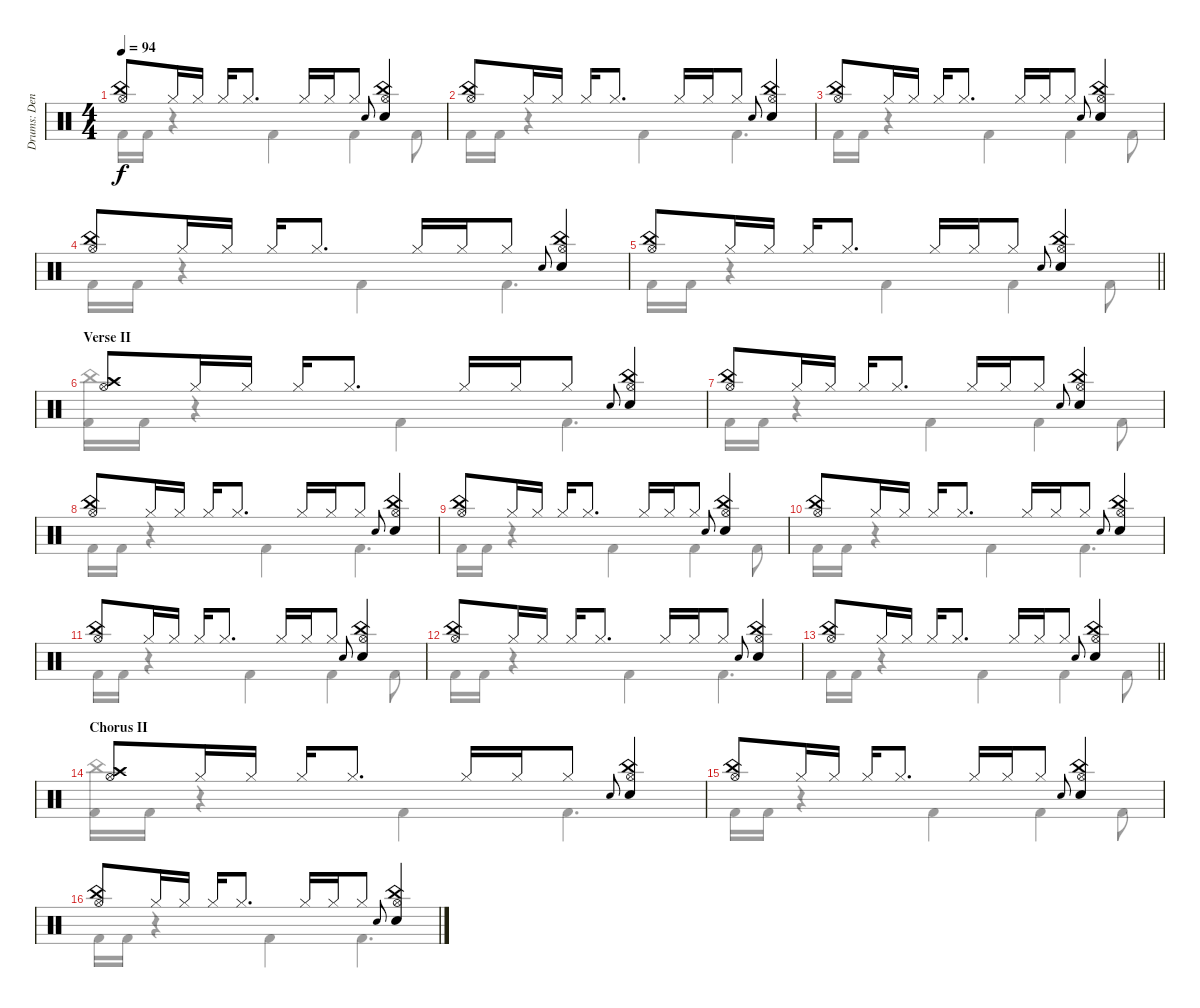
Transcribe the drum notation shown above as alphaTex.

\track ("Drums: Denny" "Drums: Den") {instrument percussion}
\staff {score}
\articulation defaults
\voice
\ts (4 4)
\tempo 94
\clef neutral
\ks c
("China (hit)" "Hi-Hat (open)").8{dy f} "Hi-Hat (closed)".16 "Hi-Hat (closed)".16 "Hi-Hat (closed)".16 "Hi-Hat (closed)".8{d} "Hi-Hat (closed)".16 "Hi-Hat (closed)".16 "Hi-Hat (closed)".8 "Electric Snare (hit)".8{gr onbeat} ("China (hit)" "Hi-Hat (open)" "Snare (hit) 2").4 |
("China (hit)" "Hi-Hat (open)").8 "Hi-Hat (closed)".16 "Hi-Hat (closed)".16 "Hi-Hat (closed)".16 "Hi-Hat (closed)".8{d} "Hi-Hat (closed)".16 "Hi-Hat (closed)".16 "Hi-Hat (closed)".8 "Electric Snare (hit)".8{gr onbeat} ("China (hit)" "Hi-Hat (open)" "Snare (hit) 2").4 |
("China (hit)" "Hi-Hat (open)").8 "Hi-Hat (closed)".16 "Hi-Hat (closed)".16 "Hi-Hat (closed)".16 "Hi-Hat (closed)".8{d} "Hi-Hat (closed)".16 "Hi-Hat (closed)".16 "Hi-Hat (closed)".8 "Electric Snare (hit)".8{gr onbeat} ("China (hit)" "Hi-Hat (open)" "Snare (hit) 2").4 |
("China (hit)" "Hi-Hat (open)").8 "Hi-Hat (closed)".16 "Hi-Hat (closed)".16 "Hi-Hat (closed)".16 "Hi-Hat (closed)".8{d} "Hi-Hat (closed)".16 "Hi-Hat (closed)".16 "Hi-Hat (closed)".8 "Electric Snare (hit)".8{gr onbeat} ("China (hit)" "Hi-Hat (open)" "Snare (hit) 2").4 |
\barLineRight lightlight
("China (hit)" "Hi-Hat (open)").8 "Hi-Hat (closed)".16 "Hi-Hat (closed)".16 "Hi-Hat (closed)".16 "Hi-Hat (closed)".8{d} "Hi-Hat (closed)".16 "Hi-Hat (closed)".16 "Hi-Hat (closed)".8 "Electric Snare (hit)".8{gr onbeat} ("China (hit)" "Hi-Hat (open)" "Snare (hit) 2").4 |
\section ("" "Verse II")
("Crash high (hit)" "Hi-Hat (open)").8 "Hi-Hat (closed)".16 "Hi-Hat (closed)".16 "Hi-Hat (closed)".16 "Hi-Hat (closed)".8{d} "Hi-Hat (closed)".16 "Hi-Hat (closed)".16 "Hi-Hat (closed)".8 "Electric Snare (hit)".8{gr onbeat} ("China (hit)" "Hi-Hat (open)" "Snare (hit) 2").4 |
("China (hit)" "Hi-Hat (open)").8 "Hi-Hat (closed)".16 "Hi-Hat (closed)".16 "Hi-Hat (closed)".16 "Hi-Hat (closed)".8{d} "Hi-Hat (closed)".16 "Hi-Hat (closed)".16 "Hi-Hat (closed)".8 "Electric Snare (hit)".8{gr onbeat} ("China (hit)" "Hi-Hat (open)" "Snare (hit) 2").4 |
("China (hit)" "Hi-Hat (open)").8 "Hi-Hat (closed)".16 "Hi-Hat (closed)".16 "Hi-Hat (closed)".16 "Hi-Hat (closed)".8{d} "Hi-Hat (closed)".16 "Hi-Hat (closed)".16 "Hi-Hat (closed)".8 "Electric Snare (hit)".8{gr onbeat} ("China (hit)" "Hi-Hat (open)" "Snare (hit) 2").4 |
("China (hit)" "Hi-Hat (open)").8 "Hi-Hat (closed)".16 "Hi-Hat (closed)".16 "Hi-Hat (closed)".16 "Hi-Hat (closed)".8{d} "Hi-Hat (closed)".16 "Hi-Hat (closed)".16 "Hi-Hat (closed)".8 "Electric Snare (hit)".8{gr onbeat} ("China (hit)" "Hi-Hat (open)" "Snare (hit) 2").4 |
("China (hit)" "Hi-Hat (open)").8 "Hi-Hat (closed)".16 "Hi-Hat (closed)".16 "Hi-Hat (closed)".16 "Hi-Hat (closed)".8{d} "Hi-Hat (closed)".16 "Hi-Hat (closed)".16 "Hi-Hat (closed)".8 "Electric Snare (hit)".8{gr onbeat} ("China (hit)" "Hi-Hat (open)" "Snare (hit) 2").4 |
("China (hit)" "Hi-Hat (open)").8 "Hi-Hat (closed)".16 "Hi-Hat (closed)".16 "Hi-Hat (closed)".16 "Hi-Hat (closed)".8{d} "Hi-Hat (closed)".16 "Hi-Hat (closed)".16 "Hi-Hat (closed)".8 "Electric Snare (hit)".8{gr onbeat} ("China (hit)" "Hi-Hat (open)" "Snare (hit) 2").4 |
("China (hit)" "Hi-Hat (open)").8 "Hi-Hat (closed)".16 "Hi-Hat (closed)".16 "Hi-Hat (closed)".16 "Hi-Hat (closed)".8{d} "Hi-Hat (closed)".16 "Hi-Hat (closed)".16 "Hi-Hat (closed)".8 "Electric Snare (hit)".8{gr onbeat} ("China (hit)" "Hi-Hat (open)" "Snare (hit) 2").4 |
\barLineRight lightlight
("China (hit)" "Hi-Hat (open)").8 "Hi-Hat (closed)".16 "Hi-Hat (closed)".16 "Hi-Hat (closed)".16 "Hi-Hat (closed)".8{d} "Hi-Hat (closed)".16 "Hi-Hat (closed)".16 "Hi-Hat (closed)".8 "Electric Snare (hit)".8{gr onbeat} ("China (hit)" "Hi-Hat (open)" "Snare (hit) 2").4 |
\section ("" "Chorus II")
("Crash high (hit)" "Hi-Hat (open)").8 "Hi-Hat (closed)".16 "Hi-Hat (closed)".16 "Hi-Hat (closed)".16 "Hi-Hat (closed)".8{d} "Hi-Hat (closed)".16 "Hi-Hat (closed)".16 "Hi-Hat (closed)".8 "Electric Snare (hit)".8{gr onbeat} ("China (hit)" "Hi-Hat (open)" "Snare (hit) 2").4 |
("China (hit)" "Hi-Hat (open)").8 "Hi-Hat (closed)".16 "Hi-Hat (closed)".16 "Hi-Hat (closed)".16 "Hi-Hat (closed)".8{d} "Hi-Hat (closed)".16 "Hi-Hat (closed)".16 "Hi-Hat (closed)".8 "Electric Snare (hit)".8{gr onbeat} ("China (hit)" "Hi-Hat (open)" "Snare (hit) 2").4 |
("China (hit)" "Hi-Hat (open)").8 "Hi-Hat (closed)".16 "Hi-Hat (closed)".16 "Hi-Hat (closed)".16 "Hi-Hat (closed)".8{d} "Hi-Hat (closed)".16 "Hi-Hat (closed)".16 "Hi-Hat (closed)".8 "Electric Snare (hit)".8{gr onbeat} ("China (hit)" "Hi-Hat (open)" "Snare (hit) 2").4
\voice
\clef neutral
\ottava regular
\simile none
\ks c "Kick (hit) 2".16{dy f} "Kick (hit) 2".16
r.4 "Kick (hit) 2".4 "Kick (hit) 2".4 "Kick (hit) 2".8 |
"Kick (hit) 2".16 "Kick (hit) 2".16 r.4 "Kick (hit) 2".4 "Kick (hit) 2".4{d} |
"Kick (hit) 2".16 "Kick (hit) 2".16 r.4 "Kick (hit) 2".4 "Kick (hit) 2".4 "Kick (hit) 2".8 |
"Kick (hit) 2".16 "Kick (hit) 2".16 r.4 "Kick (hit) 2".4 "Kick (hit) 2".4{d} |
\barLineRight lightlight "Kick (hit) 2".16 "Kick (hit) 2".16
r.4 "Kick (hit) 2".4 "Kick (hit) 2".4 "Kick (hit) 2".8 |
("China (hit)" "Kick (hit) 2").16 "Kick (hit) 2".16 r.4 "Kick (hit) 2".4 "Kick (hit) 2".4{d} |
"Kick (hit) 2".16 "Kick (hit) 2".16 r.4 "Kick (hit) 2".4 "Kick (hit) 2".4 "Kick (hit) 2".8 |
"Kick (hit) 2".16 "Kick (hit) 2".16 r.4 "Kick (hit) 2".4 "Kick (hit) 2".4{d} |
"Kick (hit) 2".16 "Kick (hit) 2".16 r.4 "Kick (hit) 2".4 "Kick (hit) 2".4 "Kick (hit) 2".8 |
"Kick (hit) 2".16 "Kick (hit) 2".16 r.4 "Kick (hit) 2".4 "Kick (hit) 2".4{d} |
"Kick (hit) 2".16 "Kick (hit) 2".16 r.4 "Kick (hit) 2".4 "Kick (hit) 2".4 "Kick (hit) 2".8 |
"Kick (hit) 2".16 "Kick (hit) 2".16 r.4 "Kick (hit) 2".4 "Kick (hit) 2".4{d} |
\barLineRight lightlight "Kick (hit) 2".16 "Kick (hit) 2".16
r.4 "Kick (hit) 2".4 "Kick (hit) 2".4 "Kick (hit) 2".8 |
("China (hit)" "Kick (hit) 2").16 "Kick (hit) 2".16 r.4 "Kick (hit) 2".4 "Kick (hit) 2".4{d} |
"Kick (hit) 2".16 "Kick (hit) 2".16 r.4 "Kick (hit) 2".4 "Kick (hit) 2".4 "Kick (hit) 2".8 |
"Kick (hit) 2".16 "Kick (hit) 2".16 r.4 "Kick (hit) 2".4 "Kick (hit) 2".4{d}
